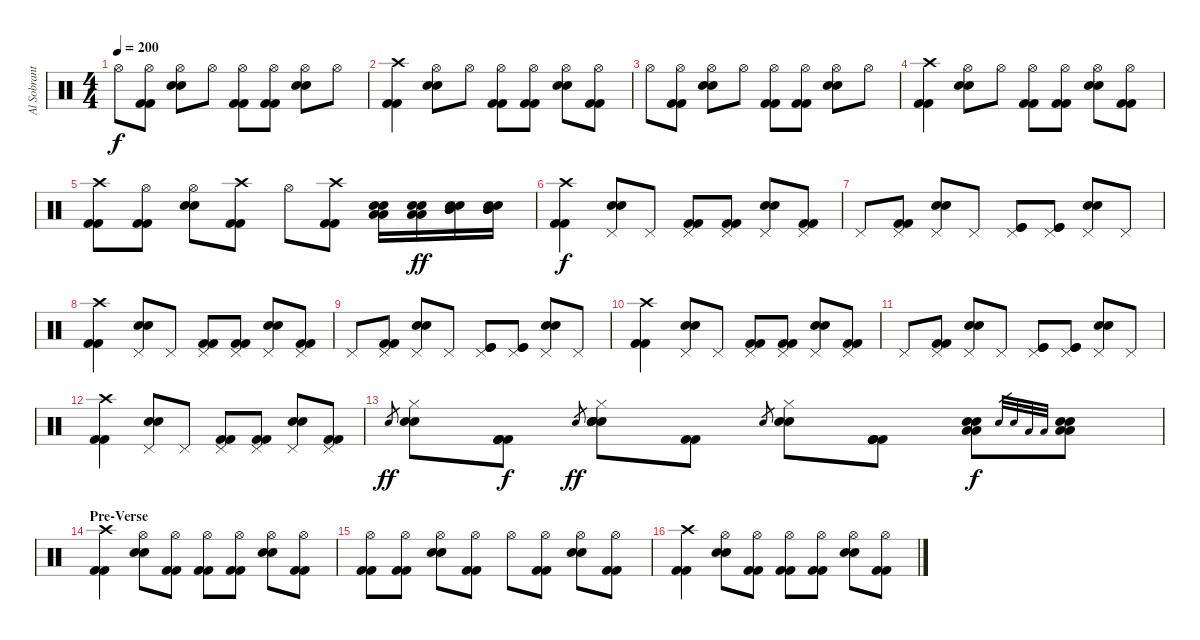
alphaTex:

\track ("Al Sobrante (Drums)" "Al Sobrant") {instrument percussion}
\staff {score}
\articulation defaults
\ts (4 4)
\tempo 200
\clef neutral
\ks c "Hi-Hat (open)".8{dy f}
("Kick (hit) 2" "Kick (hit) 2" "Hi-Hat (open)").8 ("Electric Snare (hit)" "Electric Snare (hit)" "Hi-Hat (open)").8 "Hi-Hat (open)".8 ("Kick (hit) 2" "Kick (hit) 2" "Hi-Hat (open)").8 ("Kick (hit) 2" "Kick (hit) 2" "Hi-Hat (open)").8 ("Electric Snare (hit)" "Electric Snare (hit)" "Hi-Hat (open)").8 "Hi-Hat (open)".8 |
("Kick (hit) 2" "Kick (hit) 2" "Crash high (hit)").4 ("Electric Snare (hit)" "Electric Snare (hit)" "Hi-Hat (open)").8 "Hi-Hat (open)".8 ("Kick (hit) 2" "Kick (hit) 2" "Hi-Hat (open)").8 ("Kick (hit) 2" "Kick (hit) 2" "Hi-Hat (open)").8 ("Electric Snare (hit)" "Electric Snare (hit)" "Hi-Hat (open)").8 ("Kick (hit) 2" "Kick (hit) 2" "Hi-Hat (open)").8 |
"Hi-Hat (open)".8 ("Kick (hit) 2" "Kick (hit) 2" "Hi-Hat (open)").8 ("Electric Snare (hit)" "Electric Snare (hit)" "Hi-Hat (open)").8 "Hi-Hat (open)".8 ("Kick (hit) 2" "Kick (hit) 2" "Hi-Hat (open)").8 ("Kick (hit) 2" "Kick (hit) 2" "Hi-Hat (open)").8 ("Electric Snare (hit)" "Electric Snare (hit)" "Hi-Hat (open)").8 "Hi-Hat (open)".8 |
("Kick (hit) 2" "Kick (hit) 2" "Crash high (hit)").4 ("Electric Snare (hit)" "Electric Snare (hit)" "Hi-Hat (open)").8 "Hi-Hat (open)".8 ("Kick (hit) 2" "Kick (hit) 2" "Hi-Hat (open)").8 ("Kick (hit) 2" "Kick (hit) 2" "Hi-Hat (open)").8 ("Electric Snare (hit)" "Electric Snare (hit)" "Hi-Hat (open)").8 ("Kick (hit) 2" "Kick (hit) 2" "Hi-Hat (open)").8 |
("Kick (hit) 2" "Kick (hit) 2" "Crash high (hit)").8 ("Kick (hit) 2" "Kick (hit) 2" "Hi-Hat (open)").8 ("Electric Snare (hit)" "Electric Snare (hit)" "Hi-Hat (open)").8 ("Kick (hit) 2" "Kick (hit) 2" "Crash high (hit)").8 "Hi-Hat (open)".8 ("Kick (hit) 2" "Kick (hit) 2" "Crash high (hit)").8 ("Electric Snare (hit)" "Electric Snare (hit)" "Low Floor Tom (hit)" "Low Floor Tom (hit)").16 ("Electric Snare (hit)" "Electric Snare (hit)" "Low Floor Tom (hit)" "Low Floor Tom (hit)").16{dy ff} ("Electric Snare (hit)" "Electric Snare (hit)" "Mid Tom (hit)" "Mid Tom (hit)").16 ("Electric Snare (hit)" "Electric Snare (hit)" "Mid Tom (hit)" "Mid Tom (hit)").16 |
("Kick (hit) 2" "Kick (hit) 2" "Crash high (hit)").4{dy f} ("Electric Snare (hit)" "Electric Snare (hit)" "Pedal Hi-Hat (hit)").8 "Pedal Hi-Hat (hit)".8 ("Kick (hit) 2" "Kick (hit) 2" "Pedal Hi-Hat (hit)").8 ("Kick (hit) 2" "Kick (hit) 2" "Pedal Hi-Hat (hit)").8 ("Electric Snare (hit)" "Electric Snare (hit)" "Pedal Hi-Hat (hit)").8 ("Kick (hit) 2" "Kick (hit) 2" "Pedal Hi-Hat (hit)").8 |
"Pedal Hi-Hat (hit)".8 ("Kick (hit) 2" "Kick (hit) 2" "Pedal Hi-Hat (hit)").8 ("Electric Snare (hit)" "Electric Snare (hit)" "Pedal Hi-Hat (hit)").8 "Pedal Hi-Hat (hit)".8 ("Kick (hit)" "Kick (hit)" "Pedal Hi-Hat (hit)").8 ("Kick (hit)" "Kick (hit)" "Pedal Hi-Hat (hit)").8 ("Electric Snare (hit)" "Electric Snare (hit)" "Pedal Hi-Hat (hit)").8 "Pedal Hi-Hat (hit)".8 |
("Kick (hit) 2" "Kick (hit) 2" "Crash high (hit)").4 ("Electric Snare (hit)" "Electric Snare (hit)" "Pedal Hi-Hat (hit)").8 "Pedal Hi-Hat (hit)".8 ("Kick (hit) 2" "Kick (hit) 2" "Pedal Hi-Hat (hit)").8 ("Kick (hit) 2" "Kick (hit) 2" "Pedal Hi-Hat (hit)").8 ("Electric Snare (hit)" "Electric Snare (hit)" "Pedal Hi-Hat (hit)").8 ("Kick (hit) 2" "Kick (hit) 2" "Pedal Hi-Hat (hit)").8 |
"Pedal Hi-Hat (hit)".8 ("Kick (hit) 2" "Kick (hit) 2" "Pedal Hi-Hat (hit)").8 ("Electric Snare (hit)" "Electric Snare (hit)" "Pedal Hi-Hat (hit)").8 "Pedal Hi-Hat (hit)".8 ("Kick (hit)" "Kick (hit)" "Pedal Hi-Hat (hit)").8 ("Kick (hit)" "Kick (hit)" "Pedal Hi-Hat (hit)").8 ("Electric Snare (hit)" "Electric Snare (hit)" "Pedal Hi-Hat (hit)").8 "Pedal Hi-Hat (hit)".8 |
("Kick (hit) 2" "Kick (hit) 2" "Crash high (hit)").4 ("Electric Snare (hit)" "Electric Snare (hit)" "Pedal Hi-Hat (hit)").8 "Pedal Hi-Hat (hit)".8 ("Kick (hit) 2" "Kick (hit) 2" "Pedal Hi-Hat (hit)").8 ("Kick (hit) 2" "Kick (hit) 2" "Pedal Hi-Hat (hit)").8 ("Electric Snare (hit)" "Electric Snare (hit)" "Pedal Hi-Hat (hit)").8 ("Kick (hit) 2" "Kick (hit) 2" "Pedal Hi-Hat (hit)").8 |
"Pedal Hi-Hat (hit)".8 ("Kick (hit) 2" "Kick (hit) 2" "Pedal Hi-Hat (hit)").8 ("Electric Snare (hit)" "Electric Snare (hit)" "Pedal Hi-Hat (hit)").8 "Pedal Hi-Hat (hit)".8 ("Kick (hit)" "Kick (hit)" "Pedal Hi-Hat (hit)").8 ("Kick (hit)" "Kick (hit)" "Pedal Hi-Hat (hit)").8 ("Electric Snare (hit)" "Electric Snare (hit)" "Pedal Hi-Hat (hit)").8 "Pedal Hi-Hat (hit)".8 |
("Kick (hit) 2" "Kick (hit) 2" "Crash high (hit)").4 ("Electric Snare (hit)" "Electric Snare (hit)" "Pedal Hi-Hat (hit)").8 "Pedal Hi-Hat (hit)".8 ("Kick (hit) 2" "Kick (hit) 2" "Pedal Hi-Hat (hit)").8 ("Kick (hit) 2" "Kick (hit) 2" "Pedal Hi-Hat (hit)").8 ("Electric Snare (hit)" "Electric Snare (hit)" "Pedal Hi-Hat (hit)").8 ("Kick (hit) 2" "Kick (hit) 2" "Pedal Hi-Hat (hit)").8 |
"Snare (hit) 2".8{gr dy ff} ("Electric Snare (hit)" "Snare (hit) 2" "Hi-Hat (closed)").8 ("Kick (hit) 2" "Kick (hit) 2" "Kick (hit) 2" "Kick (hit) 2").8{dy f} "Snare (hit) 2".8{gr dy ff} ("Electric Snare (hit)" "Electric Snare (hit)" "Snare (hit) 2" "Electric Snare (hit)" "Hi-Hat (closed)").8 ("Kick (hit) 2" "Kick (hit) 2").8 "Snare (hit) 2".8{gr} ("Snare (hit) 2" "Electric Snare (hit)" "Hi-Hat (closed)").8 ("Kick (hit) 2" "Kick (hit) 2" "Kick (hit) 2" "Kick (hit) 2").8 ("Electric Snare (hit)" "Electric Snare (hit)" "Low Floor Tom (hit)" "Low Floor Tom (hit)").8{dy f} "Electric Snare (hit)".32{gr} "Electric Snare (hit)".32{gr} "Low Floor Tom (hit)".32{gr} "Low Floor Tom (hit)".32{gr} ("Electric Snare (hit)" "Electric Snare (hit)" "Low Floor Tom (hit)" "Low Floor Tom (hit)").8 |
\section ("" "Pre-Verse")
("Kick (hit) 2" "Kick (hit) 2" "Crash high (hit)").4 ("Electric Snare (hit)" "Electric Snare (hit)" "Hi-Hat (open)").8 ("Kick (hit) 2" "Kick (hit) 2" "Hi-Hat (open)").8 ("Kick (hit) 2" "Kick (hit) 2" "Hi-Hat (open)").8 ("Kick (hit) 2" "Kick (hit) 2" "Hi-Hat (open)").8 ("Electric Snare (hit)" "Electric Snare (hit)" "Hi-Hat (open)").8 ("Kick (hit) 2" "Kick (hit) 2" "Hi-Hat (open)").8 |
("Kick (hit) 2" "Kick (hit) 2" "Hi-Hat (open)").8 ("Kick (hit) 2" "Kick (hit) 2" "Hi-Hat (open)").8 ("Electric Snare (hit)" "Electric Snare (hit)" "Hi-Hat (open)").8 ("Kick (hit) 2" "Kick (hit) 2" "Hi-Hat (open)").8 "Hi-Hat (open)".8 ("Kick (hit) 2" "Kick (hit) 2" "Hi-Hat (open)").8 ("Electric Snare (hit)" "Electric Snare (hit)" "Hi-Hat (open)").8 ("Kick (hit) 2" "Kick (hit) 2" "Hi-Hat (open)").8 |
("Kick (hit) 2" "Kick (hit) 2" "Crash high (hit)").4 ("Electric Snare (hit)" "Electric Snare (hit)" "Hi-Hat (open)").8 ("Kick (hit) 2" "Kick (hit) 2" "Hi-Hat (open)").8 ("Kick (hit) 2" "Kick (hit) 2" "Hi-Hat (open)").8 ("Kick (hit) 2" "Kick (hit) 2" "Hi-Hat (open)").8 ("Electric Snare (hit)" "Electric Snare (hit)" "Hi-Hat (open)").8 ("Kick (hit) 2" "Kick (hit) 2" "Hi-Hat (open)").8
